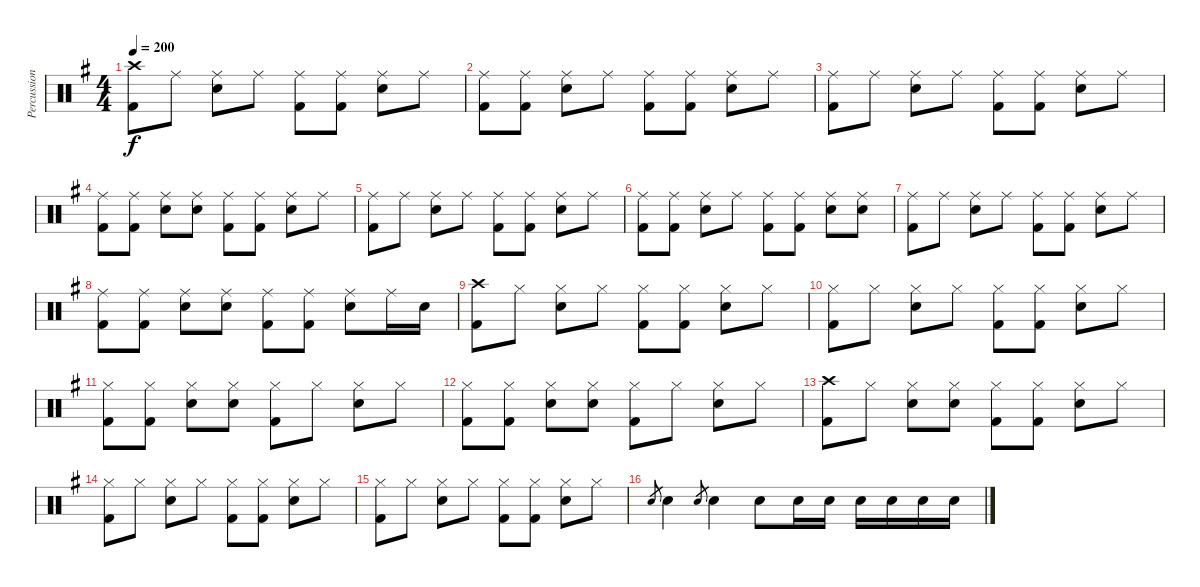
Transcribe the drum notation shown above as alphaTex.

\track ("Percussion" "Percussion") {instrument percussion}
\staff {score}
\articulation defaults
\ts (4 4)
\tempo 200
\clef neutral
\ks eminor
("Crash high (hit)" "Kick (hit) 2").8{dy f} "Ride (middle)".8 ("Ride (middle)" "Snare (hit) 2").8 "Ride (middle)".8 ("Ride (middle)" "Kick (hit) 2").8 ("Ride (middle)" "Kick (hit) 2").8 ("Ride (middle)" "Snare (hit) 2").8 "Ride (middle)".8 |
("Ride (middle)" "Kick (hit) 2").8 ("Ride (middle)" "Kick (hit) 2").8 ("Ride (middle)" "Snare (hit) 2").8 "Ride (middle)".8 ("Ride (middle)" "Kick (hit) 2").8 ("Ride (middle)" "Kick (hit) 2").8 ("Ride (middle)" "Snare (hit) 2").8 "Ride (middle)".8 |
("Ride (middle)" "Kick (hit) 2").8 "Ride (middle)".8 ("Ride (middle)" "Snare (hit) 2").8 "Ride (middle)".8 ("Ride (middle)" "Kick (hit) 2").8 ("Ride (middle)" "Kick (hit) 2").8 ("Ride (middle)" "Snare (hit) 2").8 "Ride (middle)".8 |
("Ride (middle)" "Kick (hit) 2").8 ("Ride (middle)" "Kick (hit) 2").8 ("Ride (middle)" "Snare (hit) 2").8 ("Ride (middle)" "Snare (hit) 2").8 ("Ride (middle)" "Kick (hit) 2").8 ("Ride (middle)" "Kick (hit) 2").8 ("Ride (middle)" "Snare (hit) 2").8 "Ride (middle)".8 |
("Ride (middle)" "Kick (hit) 2").8 "Ride (middle)".8 ("Ride (middle)" "Snare (hit) 2").8 "Ride (middle)".8 ("Ride (middle)" "Kick (hit) 2").8 ("Ride (middle)" "Kick (hit) 2").8 ("Ride (middle)" "Snare (hit) 2").8 "Ride (middle)".8 |
("Ride (middle)" "Kick (hit) 2").8 ("Ride (middle)" "Kick (hit) 2").8 ("Ride (middle)" "Snare (hit) 2").8 "Ride (middle)".8 ("Ride (middle)" "Kick (hit) 2").8 ("Ride (middle)" "Kick (hit) 2").8 ("Ride (middle)" "Snare (hit) 2").8 ("Ride (middle)" "Snare (hit) 2").8 |
("Ride (middle)" "Kick (hit) 2").8 "Ride (middle)".8 ("Ride (middle)" "Snare (hit) 2").8 "Ride (middle)".8 ("Ride (middle)" "Kick (hit) 2").8 ("Ride (middle)" "Kick (hit) 2").8 ("Ride (middle)" "Snare (hit) 2").8 "Ride (middle)".8 |
("Ride (middle)" "Kick (hit) 2").8 ("Ride (middle)" "Kick (hit) 2").8 ("Ride (middle)" "Snare (hit) 2").8 ("Ride (middle)" "Snare (hit) 2").8 ("Ride (middle)" "Kick (hit) 2").8 ("Ride (middle)" "Kick (hit) 2").8 ("Ride (middle)" "Snare (hit) 2").8 "Ride (middle)".16 "Snare (hit) 2".16 |
("Crash high (hit)" "Kick (hit) 2").8 "Hi-Hat (closed)".8 ("Hi-Hat (closed)" "Snare (hit) 2").8 "Hi-Hat (closed)".8 ("Hi-Hat (closed)" "Kick (hit) 2").8 ("Hi-Hat (closed)" "Kick (hit) 2").8 ("Hi-Hat (closed)" "Snare (hit) 2").8 "Hi-Hat (closed)".8 |
("Hi-Hat (closed)" "Kick (hit) 2").8 "Hi-Hat (closed)".8 ("Hi-Hat (closed)" "Snare (hit) 2").8 "Hi-Hat (closed)".8 ("Hi-Hat (closed)" "Kick (hit) 2").8 ("Hi-Hat (closed)" "Kick (hit) 2").8 ("Hi-Hat (closed)" "Snare (hit) 2").8 "Hi-Hat (closed)".8 |
("Hi-Hat (closed)" "Kick (hit) 2").8 ("Hi-Hat (closed)" "Kick (hit) 2").8 ("Hi-Hat (closed)" "Snare (hit) 2").8 ("Hi-Hat (closed)" "Snare (hit) 2").8 ("Hi-Hat (closed)" "Kick (hit) 2").8 "Hi-Hat (closed)".8 ("Hi-Hat (closed)" "Snare (hit) 2").8 "Hi-Hat (closed)".8 |
("Hi-Hat (closed)" "Kick (hit) 2").8 ("Hi-Hat (closed)" "Kick (hit) 2").8 ("Hi-Hat (closed)" "Snare (hit) 2").8 ("Hi-Hat (closed)" "Snare (hit) 2").8 ("Hi-Hat (closed)" "Kick (hit) 2").8 "Hi-Hat (closed)".8 ("Hi-Hat (closed)" "Snare (hit) 2").8 "Hi-Hat (closed)".8 |
("Crash high (hit)" "Kick (hit) 2").8 "Hi-Hat (closed)".8 ("Hi-Hat (closed)" "Snare (hit) 2").8 ("Hi-Hat (closed)" "Snare (hit) 2").8 ("Hi-Hat (closed)" "Kick (hit) 2").8 ("Hi-Hat (closed)" "Kick (hit) 2").8 ("Hi-Hat (closed)" "Snare (hit) 2").8 "Hi-Hat (closed)".8 |
("Hi-Hat (closed)" "Kick (hit) 2").8 "Hi-Hat (closed)".8 ("Hi-Hat (closed)" "Snare (hit) 2").8 "Hi-Hat (closed)".8 ("Hi-Hat (closed)" "Kick (hit) 2").8 ("Hi-Hat (closed)" "Kick (hit) 2").8 ("Hi-Hat (closed)" "Snare (hit) 2").8 "Hi-Hat (closed)".8 |
("Hi-Hat (closed)" "Kick (hit) 2").8 "Hi-Hat (closed)".8 ("Hi-Hat (closed)" "Snare (hit) 2").8 "Hi-Hat (closed)".8 ("Hi-Hat (closed)" "Kick (hit) 2").8 ("Hi-Hat (closed)" "Kick (hit) 2").8 ("Hi-Hat (closed)" "Snare (hit) 2").8 "Hi-Hat (closed)".8 |
"Snare (hit) 2".8{gr} "Snare (hit) 2".4 "Snare (hit) 2".8{gr} "Snare (hit) 2".4 "Snare (hit) 2".8 "Snare (hit) 2".16 "Snare (hit) 2".16 "Snare (hit) 2".16 "Snare (hit) 2".16 "Snare (hit) 2".16 "Snare (hit) 2".16
